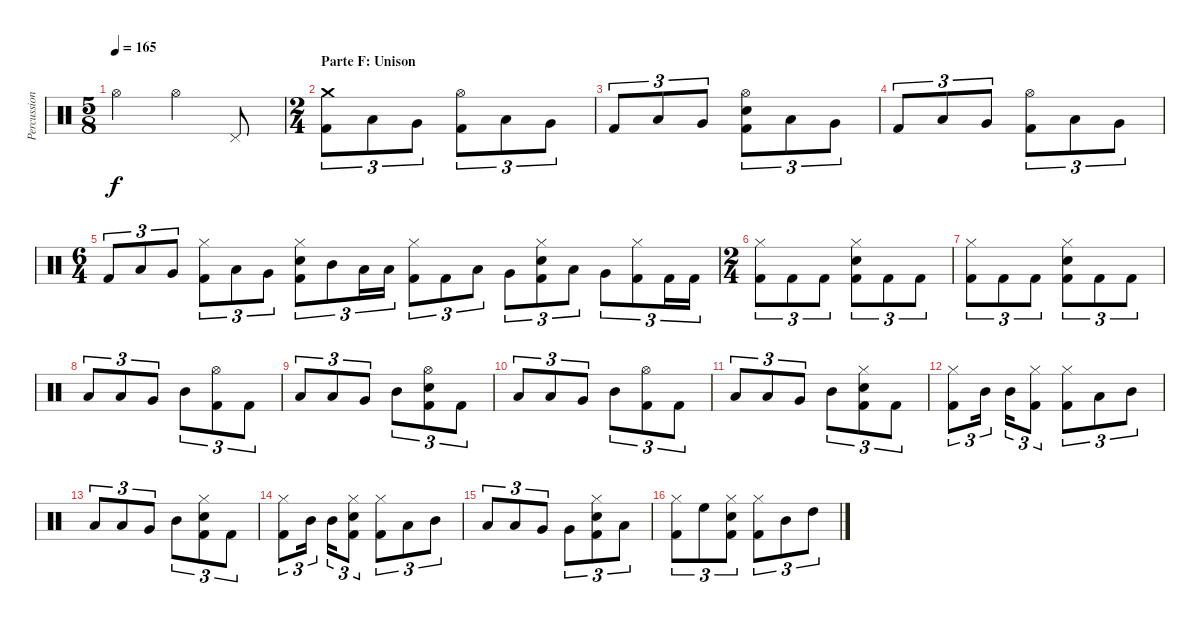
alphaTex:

\track ("Percussion" "Percussion") {instrument percussion}
\staff {score}
\articulation defaults
\ts (5 8)
\tempo 165
\clef neutral
\ks c "Hi-Hat (open)".4{dy f} "Hi-Hat (open)".4 "Pedal Hi-Hat (hit)".8
|
\ts (2 4)
\section ("" "Parte F: Unison")
("Crash medium (hit)" "Kick (hit) 2").8{tu (3 2)} "Low Tom (hit)".8{tu (3 2)} "Very Low Tom (hit)".8{tu (3 2)} ("Hi-Hat (open)" "Kick (hit) 2").8{tu (3 2)} "Low Tom (hit)".8{tu (3 2)} "Very Low Tom (hit)".8{tu (3 2)} |
"Kick (hit) 2".8{tu (3 2)} "Low Tom (hit)".8{tu (3 2)} "Very Low Tom (hit)".8{tu (3 2)} ("Hi-Hat (open)" "Snare (hit) 2" "Kick (hit) 2").8{tu (3 2)} "Low Tom (hit)".8{tu (3 2)} "Very Low Tom (hit)".8{tu (3 2)} |
"Kick (hit) 2".8{tu (3 2)} "Low Tom (hit)".8{tu (3 2)} "Very Low Tom (hit)".8{tu (3 2)} ("Hi-Hat (open)" "Kick (hit) 2").8{tu (3 2)} "Low Tom (hit)".8{tu (3 2)} "Very Low Tom (hit)".8{tu (3 2)} |
\ts (6 4)
"Kick (hit) 2".8{tu (3 2)} "Low Tom (hit)".8{tu (3 2)} "Very Low Tom (hit)".8{tu (3 2)} ("Hi-Hat (closed)" "Kick (hit) 2").8{tu (3 2)} "Low Tom (hit)".8{tu (3 2)} "Very Low Tom (hit)".8{tu (3 2)} ("Hi-Hat (closed)" "Snare (hit) 2" "Kick (hit) 2").8{tu (3 2)} "Mid Tom (hit)".8{tu (3 2)} "Low Tom (hit)".16{tu (3 2)} "Low Tom (hit)".16{tu (3 2)} ("Hi-Hat (closed)" "Kick (hit) 2").8{tu (3 2)} "Kick (hit) 2".8{tu (3 2)} "Low Tom (hit)".8{tu (3 2)} "Very Low Tom (hit)".8{tu (3 2)} ("Hi-Hat (closed)" "Snare (hit) 2" "Kick (hit) 2").8{tu (3 2)} "Low Tom (hit)".8{tu (3 2)} "Very Low Tom (hit)".8{tu (3 2)} ("Hi-Hat (closed)" "Kick (hit) 2").8{tu (3 2)} "Kick (hit) 2".16{tu (3 2)} "Kick (hit) 2".16{tu (3 2)} |
\ts (2 4)
("Hi-Hat (closed)" "Kick (hit) 2").8{tu (3 2)} "Kick (hit) 2".8{tu (3 2)} "Kick (hit) 2".8{tu (3 2)} ("Hi-Hat (closed)" "Snare (hit) 2" "Kick (hit) 2").8{tu (3 2)} "Kick (hit) 2".8{tu (3 2)} "Kick (hit) 2".8{tu (3 2)} |
("Hi-Hat (closed)" "Kick (hit) 2").8{tu (3 2)} "Kick (hit) 2".8{tu (3 2)} "Kick (hit) 2".8{tu (3 2)} ("Hi-Hat (closed)" "Snare (hit) 2" "Kick (hit) 2").8{tu (3 2)} "Kick (hit) 2".8{tu (3 2)} "Kick (hit) 2".8{tu (3 2)} |
"Low Tom (hit)".8{tu (3 2)} "Low Tom (hit)".8{tu (3 2)} "Very Low Tom (hit)".8{tu (3 2)} "Mid Tom (hit)".8{tu (3 2)} ("Hi-Hat (open)" "Kick (hit) 2").8{tu (3 2)} "Kick (hit) 2".8{tu (3 2)} |
"Low Tom (hit)".8{tu (3 2)} "Low Tom (hit)".8{tu (3 2)} "Very Low Tom (hit)".8{tu (3 2)} "Mid Tom (hit)".8{tu (3 2)} ("Hi-Hat (open)" "Snare (hit) 2" "Kick (hit) 2").8{tu (3 2)} "Kick (hit) 2".8{tu (3 2)} |
"Low Tom (hit)".8{tu (3 2)} "Low Tom (hit)".8{tu (3 2)} "Very Low Tom (hit)".8{tu (3 2)} "Mid Tom (hit)".8{tu (3 2)} ("Hi-Hat (open)" "Kick (hit) 2").8{tu (3 2)} "Kick (hit) 2".8{tu (3 2)} |
"Low Tom (hit)".8{tu (3 2)} "Low Tom (hit)".8{tu (3 2)} "Very Low Tom (hit)".8{tu (3 2)} "Mid Tom (hit)".8{tu (3 2)} ("Hi-Hat (closed)" "Snare (hit) 2" "Kick (hit) 2").8{tu (3 2)} "Kick (hit) 2".8{tu (3 2)} |
("Hi-Hat (closed)" "Kick (hit) 2").8{tu (3 2)} "Mid Tom (hit)".16{tu (3 2)} "Mid Tom (hit)".16{tu (3 2)} ("Hi-Hat (closed)" "Kick (hit) 2").8{tu (3 2)} ("Hi-Hat (closed)" "Kick (hit) 2").8{tu (3 2)} "Low Tom (hit)".8{tu (3 2)} "Mid Tom (hit)".8{tu (3 2)} |
"Low Tom (hit)".8{tu (3 2)} "Low Tom (hit)".8{tu (3 2)} "Very Low Tom (hit)".8{tu (3 2)} "Mid Tom (hit)".8{tu (3 2)} ("Hi-Hat (closed)" "Snare (hit) 2" "Kick (hit) 2").8{tu (3 2)} "Kick (hit) 2".8{tu (3 2)} |
("Hi-Hat (closed)" "Kick (hit) 2").8{tu (3 2)} "Mid Tom (hit)".16{tu (3 2)} "Mid Tom (hit)".16{tu (3 2)} ("Hi-Hat (closed)" "Snare (hit) 2" "Kick (hit) 2").8{tu (3 2)} ("Hi-Hat (closed)" "Kick (hit) 2").8{tu (3 2)} "Low Tom (hit)".8{tu (3 2)} "Mid Tom (hit)".8{tu (3 2)} |
"Low Tom (hit)".8{tu (3 2)} "Low Tom (hit)".8{tu (3 2)} "Very Low Tom (hit)".8{tu (3 2)} "Very Low Tom (hit)".8{tu (3 2)} ("Hi-Hat (closed)" "Snare (hit) 2" "Kick (hit) 2").8{tu (3 2)} "Low Floor Tom (hit)".8{tu (3 2)} |
("Hi-Hat (closed)" "Kick (hit) 2").8{tu (3 2)} "High Floor Tom (hit)".8{tu (3 2)} ("Hi-Hat (closed)" "Snare (hit) 2" "Kick (hit) 2").8{tu (3 2)} ("Hi-Hat (closed)" "Kick (hit) 2").8{tu (3 2)} "Mid Tom (hit)".8{tu (3 2)} "High Tom (hit)".8{tu (3 2)}
